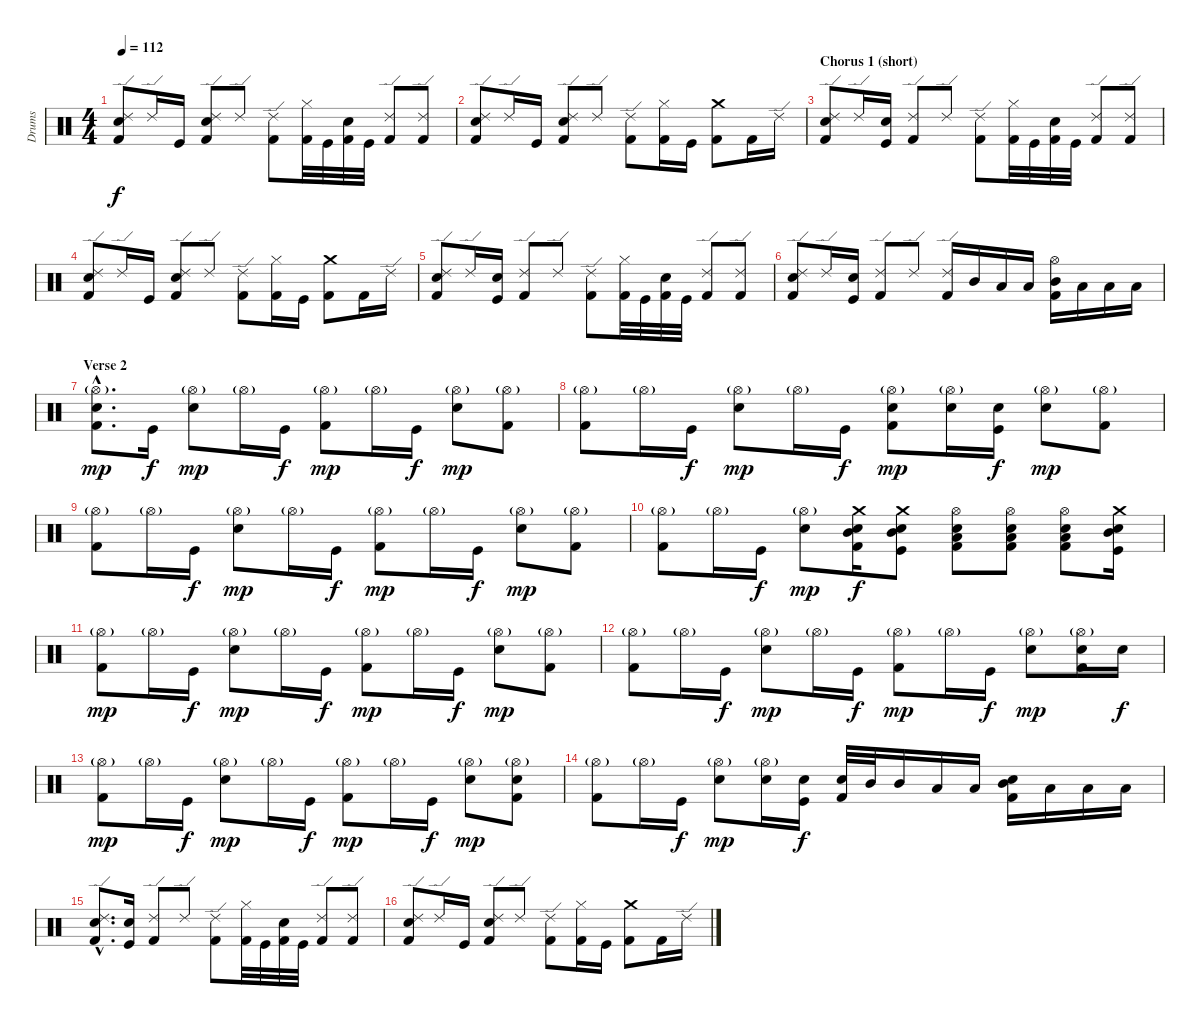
\track ("Drums" "Drums") {instrument percussion}
\staff {score}
\articulation defaults
\ts (4 4)
\tempo 112
\clef neutral
\ks c
("Ride (edge) 2" "Snare (hit) 2" "Kick (hit) 2").8{dy f} "Ride (edge) 2".16 "Kick (hit)".16 ("Ride (edge) 2" "Snare (hit) 2" "Kick (hit) 2").8 "Ride (edge) 2".8 ("Ride (edge) 2" "Kick (hit) 2").8 ("Hi-Hat (closed)" "Kick (hit) 2").32 "Kick (hit)".32 ("Snare (hit) 2" "Kick (hit) 2").32 "Kick (hit)".32 ("Ride (edge) 2" "Kick (hit) 2").8 ("Ride (edge) 2" "Kick (hit) 2").8 |
("Ride (edge) 2" "Snare (hit) 2" "Kick (hit) 2").8 "Ride (edge) 2".16 "Kick (hit)".16 ("Ride (edge) 2" "Snare (hit) 2" "Kick (hit) 2").8 "Ride (edge) 2".8 ("Ride (edge) 2" "Kick (hit) 2").8 ("Hi-Hat (closed)" "Kick (hit) 2").16 "Kick (hit)".16 ("Crash medium (hit)" "Kick (hit) 2").8 "Kick (hit) 2".16 "Ride (edge) 2".16 |
\section ("" "Chorus 1 (short)")
("Ride (edge) 2" "Snare (hit) 2" "Kick (hit) 2").8 "Ride (edge) 2".16 ("Snare (hit) 2" "Kick (hit)").16 ("Ride (edge) 2" "Kick (hit) 2").8 "Ride (edge) 2".8 ("Ride (edge) 2" "Kick (hit) 2").8 ("Hi-Hat (closed)" "Kick (hit) 2").32 "Kick (hit)".32 ("Snare (hit) 2" "Kick (hit) 2").32 "Kick (hit)".32 ("Ride (edge) 2" "Kick (hit) 2").8 ("Ride (edge) 2" "Kick (hit) 2").8 |
("Ride (edge) 2" "Snare (hit) 2" "Kick (hit) 2").8 "Ride (edge) 2".16 "Kick (hit)".16 ("Ride (edge) 2" "Snare (hit) 2" "Kick (hit) 2").8 "Ride (edge) 2".8 ("Ride (edge) 2" "Kick (hit) 2").8 ("Hi-Hat (closed)" "Kick (hit) 2").16 "Kick (hit)".16 ("Crash medium (hit)" "Kick (hit) 2").8 "Kick (hit) 2".16 "Ride (edge) 2".16 |
("Ride (edge) 2" "Snare (hit) 2" "Kick (hit) 2").8 "Ride (edge) 2".16 ("Snare (hit) 2" "Kick (hit)").16 ("Ride (edge) 2" "Kick (hit) 2").8 "Ride (edge) 2".8 ("Ride (edge) 2" "Kick (hit) 2").8 ("Hi-Hat (closed)" "Kick (hit) 2").32 "Kick (hit)".32 ("Snare (hit) 2" "Kick (hit) 2").32 "Kick (hit)".32 ("Ride (edge) 2" "Kick (hit) 2").8 ("Ride (edge) 2" "Kick (hit) 2").8 |
("Ride (edge) 2" "Snare (hit) 2" "Kick (hit) 2").8 "Ride (edge) 2".16 ("Snare (hit) 2" "Kick (hit)").16 ("Ride (edge) 2" "Kick (hit) 2").8 "Ride (edge) 2".8 ("Ride (edge) 2" "Kick (hit) 2").16 "Mid Tom (hit)".16 "Low Tom (hit)".16 "Low Tom (hit)".16 ("Hi-Hat (open)" "Mid Tom (hit)" "Kick (hit) 2").16 "Low Tom (hit)".16 "Low Tom (hit)".16 "Low Tom (hit)".16 |
\section ("" "Verse 2")
("Hi-Hat (open)"{g hac} "Snare (hit) 2"{hac} "Kick (hit) 2"{hac}).8{d dy mp} "Kick (hit)".16{dy f} ("Hi-Hat (open)"{g} "Snare (hit) 2").8{dy mp} "Hi-Hat (open)"{g}.16 "Kick (hit)".16{dy f} ("Hi-Hat (open)"{g} "Kick (hit) 2").8{dy mp} "Hi-Hat (open)"{g}.16 "Kick (hit)".16{dy f} ("Hi-Hat (open)"{g} "Snare (hit) 2").8{dy mp} ("Hi-Hat (open)"{g} "Kick (hit) 2").8 |
("Hi-Hat (open)"{g} "Kick (hit) 2").8 "Hi-Hat (open)"{g}.16 "Kick (hit)".16{dy f} ("Hi-Hat (open)"{g} "Snare (hit) 2").8{dy mp} "Hi-Hat (open)"{g}.16 "Kick (hit)".16{dy f} ("Hi-Hat (open)"{g} "Snare (hit) 2" "Kick (hit) 2").8{dy mp} ("Hi-Hat (open)"{g} "Snare (hit) 2").16 ("Snare (hit) 2" "Kick (hit)").16{dy f} ("Hi-Hat (open)"{g} "Snare (hit) 2").8{dy mp} ("Hi-Hat (open)"{g} "Kick (hit) 2").8 |
("Hi-Hat (open)"{g} "Kick (hit) 2").8 "Hi-Hat (open)"{g}.16 "Kick (hit)".16{dy f} ("Hi-Hat (open)"{g} "Snare (hit) 2").8{dy mp} "Hi-Hat (open)"{g}.16 "Kick (hit)".16{dy f} ("Hi-Hat (open)"{g} "Kick (hit) 2").8{dy mp} "Hi-Hat (open)"{g}.16 "Kick (hit)".16{dy f} ("Hi-Hat (open)"{g} "Snare (hit) 2").8{dy mp} ("Hi-Hat (open)"{g} "Kick (hit) 2").8 |
("Hi-Hat (open)"{g} "Kick (hit) 2").8 "Hi-Hat (open)"{g}.16 "Kick (hit)".16{dy f} ("Hi-Hat (open)"{g} "Snare (hit) 2").8{dy mp} ("Crash medium (hit)" "Snare (hit) 2" "Kick (hit) 2" "Mid Tom (hit)").16{dy f} ("Crash medium (hit)" "Snare (hit) 2" "Kick (hit)" "Mid Tom (hit)").8 ("Hi-Hat (open)" "Snare (hit) 2" "Kick (hit) 2" "Low Tom (hit)").8 ("Hi-Hat (open)" "Snare (hit) 2" "Kick (hit) 2" "Low Tom (hit)").8 ("Hi-Hat (open)" "Snare (hit) 2" "Kick (hit) 2" "Low Tom (hit)").8 ("Crash medium (hit)" "Snare (hit) 2" "Kick (hit)" "Mid Tom (hit)").16 |
("Hi-Hat (open)"{g} "Kick (hit) 2").8{dy mp} "Hi-Hat (open)"{g}.16 "Kick (hit)".16{dy f} ("Hi-Hat (open)"{g} "Snare (hit) 2").8{dy mp} "Hi-Hat (open)"{g}.16 "Kick (hit)".16{dy f} ("Hi-Hat (open)"{g} "Kick (hit) 2").8{dy mp} "Hi-Hat (open)"{g}.16 "Kick (hit)".16{dy f} ("Hi-Hat (open)"{g} "Snare (hit) 2").8{dy mp} ("Hi-Hat (open)"{g} "Kick (hit) 2").8 |
("Hi-Hat (open)"{g} "Kick (hit) 2").8 "Hi-Hat (open)"{g}.16 "Kick (hit)".16{dy f} ("Hi-Hat (open)"{g} "Snare (hit) 2").8{dy mp} "Hi-Hat (open)"{g}.16 "Kick (hit)".16{dy f} ("Hi-Hat (open)"{g} "Kick (hit) 2").8{dy mp} "Hi-Hat (open)"{g}.16 "Kick (hit)".16{dy f} ("Hi-Hat (open)"{g} "Snare (hit) 2").8{dy mp} ("Hi-Hat (open)"{g} "Snare (hit) 2" "Kick (hit) 2").16 "Snare (hit) 2".16{dy f} |
("Hi-Hat (open)"{g} "Kick (hit) 2").8{dy mp} "Hi-Hat (open)"{g}.16 "Kick (hit)".16{dy f} ("Hi-Hat (open)"{g} "Snare (hit) 2").8{dy mp} "Hi-Hat (open)"{g}.16 "Kick (hit)".16{dy f} ("Hi-Hat (open)"{g} "Kick (hit) 2").8{dy mp} "Hi-Hat (open)"{g}.16 "Kick (hit)".16{dy f} ("Hi-Hat (open)"{g} "Snare (hit) 2").8{dy mp} ("Hi-Hat (open)"{g} "Snare (hit) 2" "Kick (hit) 2").8 |
("Hi-Hat (open)"{g} "Kick (hit) 2").8 "Hi-Hat (open)"{g}.16 "Kick (hit)".16{dy f} ("Hi-Hat (open)"{g} "Snare (hit) 2").8{dy mp} ("Hi-Hat (open)"{g} "Snare (hit) 2").16 ("Snare (hit) 2" "Kick (hit)").16{dy f} ("Snare (hit) 2" "Kick (hit) 2").32 "Mid Tom (hit)".32 "Mid Tom (hit)".16 "Low Tom (hit)".16 "Low Tom (hit)".16 ("Snare (hit) 2" "Mid Tom (hit)" "Kick (hit) 2").16 "Low Tom (hit)".16 "Low Tom (hit)".16 "Low Tom (hit)".16 |
("Ride (edge) 2"{hac} "Snare (hit) 2"{hac} "Kick (hit) 2"{hac}).8{d} ("Snare (hit) 2" "Kick (hit)").16 ("Ride (edge) 2" "Kick (hit) 2").8 "Ride (edge) 2".8 ("Ride (edge) 2" "Kick (hit) 2").8 ("Hi-Hat (closed)" "Kick (hit) 2").32 "Kick (hit)".32 ("Snare (hit) 2" "Kick (hit) 2").32 "Kick (hit)".32 ("Ride (edge) 2" "Kick (hit) 2").8 ("Ride (edge) 2" "Kick (hit) 2").8 |
("Ride (edge) 2" "Snare (hit) 2" "Kick (hit) 2").8 "Ride (edge) 2".16 "Kick (hit)".16 ("Ride (edge) 2" "Snare (hit) 2" "Kick (hit) 2").8 "Ride (edge) 2".8 ("Ride (edge) 2" "Kick (hit) 2").8 ("Hi-Hat (closed)" "Kick (hit) 2").16 "Kick (hit)".16 ("Crash medium (hit)" "Kick (hit) 2").8 "Kick (hit) 2".16 "Ride (edge) 2".16
